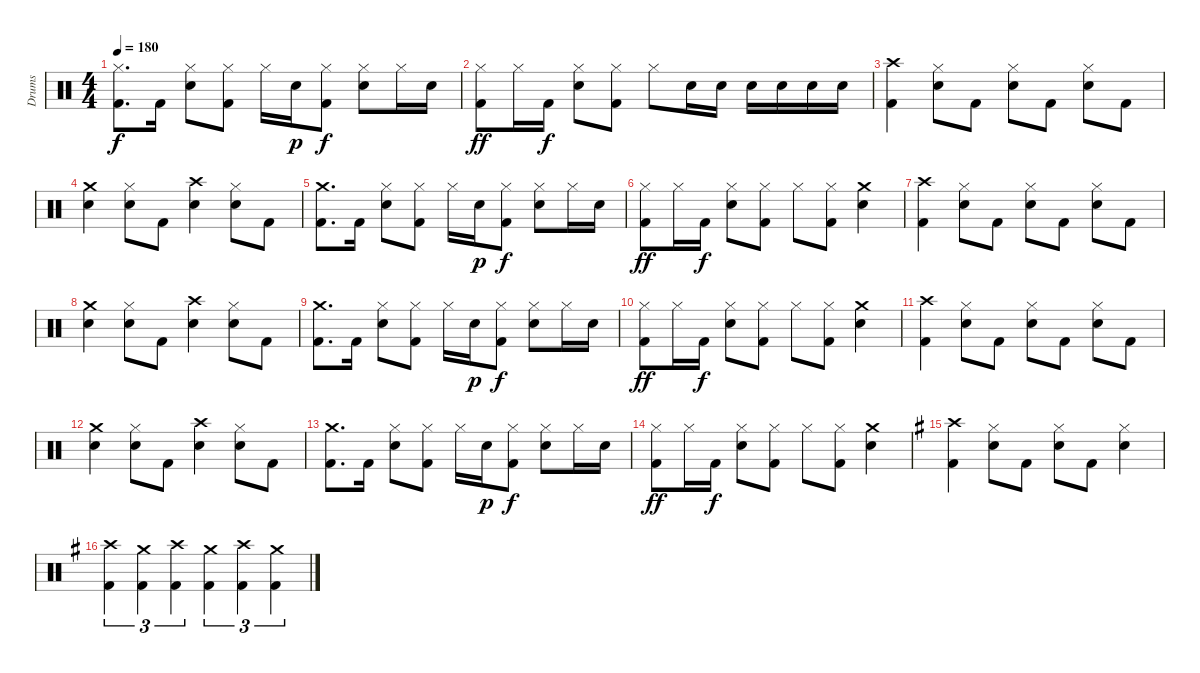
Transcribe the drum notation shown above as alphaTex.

\track ("Drums" "Drums") {instrument percussion}
\staff {score}
\articulation defaults
\ts (4 4)
\tempo 180
\clef neutral
\ks c
("Hi-Hat (closed)" "Kick (hit) 2").8{d dy f} "Kick (hit) 2".16 ("Hi-Hat (closed)" "Snare (hit) 2").8 ("Hi-Hat (closed)" "Kick (hit) 2").8 "Hi-Hat (closed)".16 "Snare (hit) 2".16{dy p} ("Hi-Hat (closed)" "Kick (hit) 2").8{dy f} ("Hi-Hat (closed)" "Snare (hit) 2").8 "Hi-Hat (closed)".16 "Snare (hit) 2".16 |
("Hi-Hat (closed)" "Kick (hit) 2").8{dy ff} "Hi-Hat (closed)".16 "Kick (hit) 2".16{dy f} ("Hi-Hat (closed)" "Snare (hit) 2").8 ("Hi-Hat (closed)" "Kick (hit) 2").8 "Hi-Hat (closed)".8 "Snare (hit) 2".16 "Snare (hit) 2".16 "Snare (hit) 2".16 "Snare (hit) 2".16 "Snare (hit) 2".16 "Snare (hit) 2".16 |
("Crash high (hit)" "Kick (hit) 2").4 ("Hi-Hat (closed)" "Snare (hit) 2").8 "Kick (hit) 2".8 ("Hi-Hat (closed)" "Snare (hit) 2").8 "Kick (hit) 2".8 ("Hi-Hat (closed)" "Snare (hit) 2").8 "Kick (hit) 2".8 |
("Crash medium (hit)" "Snare (hit) 2").4 ("Hi-Hat (closed)" "Snare (hit) 2").8 "Kick (hit) 2".8 ("Crash high (hit)" "Snare (hit) 2").4 ("Hi-Hat (closed)" "Snare (hit) 2").8 "Kick (hit) 2".8 |
("Crash medium (hit)" "Kick (hit) 2").8{d} "Kick (hit) 2".16 ("Hi-Hat (closed)" "Snare (hit) 2").8 ("Hi-Hat (closed)" "Kick (hit) 2").8 "Hi-Hat (closed)".16 "Snare (hit) 2".16{dy p} ("Hi-Hat (closed)" "Kick (hit) 2").8{dy f} ("Hi-Hat (closed)" "Snare (hit) 2").8 "Hi-Hat (closed)".16 "Snare (hit) 2".16 |
("Hi-Hat (closed)" "Kick (hit) 2").8{dy ff} "Hi-Hat (closed)".16 "Kick (hit) 2".16{dy f} ("Hi-Hat (closed)" "Snare (hit) 2").8 ("Hi-Hat (closed)" "Kick (hit) 2").8 "Hi-Hat (closed)".8 ("Hi-Hat (closed)" "Kick (hit) 2").8 ("Crash medium (hit)" "Snare (hit) 2").4 |
("Crash high (hit)" "Kick (hit) 2").4 ("Hi-Hat (closed)" "Snare (hit) 2").8 "Kick (hit) 2".8 ("Hi-Hat (closed)" "Snare (hit) 2").8 "Kick (hit) 2".8 ("Hi-Hat (closed)" "Snare (hit) 2").8 "Kick (hit) 2".8 |
("Crash medium (hit)" "Snare (hit) 2").4 ("Hi-Hat (closed)" "Snare (hit) 2").8 "Kick (hit) 2".8 ("Crash high (hit)" "Snare (hit) 2").4 ("Hi-Hat (closed)" "Snare (hit) 2").8 "Kick (hit) 2".8 |
("Crash medium (hit)" "Kick (hit) 2").8{d} "Kick (hit) 2".16 ("Hi-Hat (closed)" "Snare (hit) 2").8 ("Hi-Hat (closed)" "Kick (hit) 2").8 "Hi-Hat (closed)".16 "Snare (hit) 2".16{dy p} ("Hi-Hat (closed)" "Kick (hit) 2").8{dy f} ("Hi-Hat (closed)" "Snare (hit) 2").8 "Hi-Hat (closed)".16 "Snare (hit) 2".16 |
("Hi-Hat (closed)" "Kick (hit) 2").8{dy ff} "Hi-Hat (closed)".16 "Kick (hit) 2".16{dy f} ("Hi-Hat (closed)" "Snare (hit) 2").8 ("Hi-Hat (closed)" "Kick (hit) 2").8 "Hi-Hat (closed)".8 ("Hi-Hat (closed)" "Kick (hit) 2").8 ("Crash medium (hit)" "Snare (hit) 2").4 |
("Crash high (hit)" "Kick (hit) 2").4 ("Hi-Hat (closed)" "Snare (hit) 2").8 "Kick (hit) 2".8 ("Hi-Hat (closed)" "Snare (hit) 2").8 "Kick (hit) 2".8 ("Hi-Hat (closed)" "Snare (hit) 2").8 "Kick (hit) 2".8 |
("Crash medium (hit)" "Snare (hit) 2").4 ("Hi-Hat (closed)" "Snare (hit) 2").8 "Kick (hit) 2".8 ("Crash high (hit)" "Snare (hit) 2").4 ("Hi-Hat (closed)" "Snare (hit) 2").8 "Kick (hit) 2".8 |
("Crash medium (hit)" "Kick (hit) 2").8{d} "Kick (hit) 2".16 ("Hi-Hat (closed)" "Snare (hit) 2").8 ("Hi-Hat (closed)" "Kick (hit) 2").8 "Hi-Hat (closed)".16 "Snare (hit) 2".16{dy p} ("Hi-Hat (closed)" "Kick (hit) 2").8{dy f} ("Hi-Hat (closed)" "Snare (hit) 2").8 "Hi-Hat (closed)".16 "Snare (hit) 2".16 |
("Hi-Hat (closed)" "Kick (hit) 2").8{dy ff} "Hi-Hat (closed)".16 "Kick (hit) 2".16{dy f} ("Hi-Hat (closed)" "Snare (hit) 2").8 ("Hi-Hat (closed)" "Kick (hit) 2").8 "Hi-Hat (closed)".8 ("Hi-Hat (closed)" "Kick (hit) 2").8 ("Crash medium (hit)" "Snare (hit) 2").4 |
\ks g
("Crash high (hit)" "Kick (hit) 2").4 ("Hi-Hat (closed)" "Snare (hit) 2").8 "Kick (hit) 2".8 ("Hi-Hat (closed)" "Snare (hit) 2").8 "Kick (hit) 2".8 ("Hi-Hat (closed)" "Snare (hit) 2").4 |
("Crash high (hit)" "Kick (hit) 2").4{tu (3 2)} ("Crash medium (hit)" "Kick (hit) 2").4{tu (3 2)} ("Crash high (hit)" "Kick (hit) 2").4{tu (3 2)} ("Crash medium (hit)" "Kick (hit) 2").4{tu (3 2)} ("Crash high (hit)" "Kick (hit) 2").4{tu (3 2)} ("Crash medium (hit)" "Kick (hit) 2").4{tu (3 2)}
